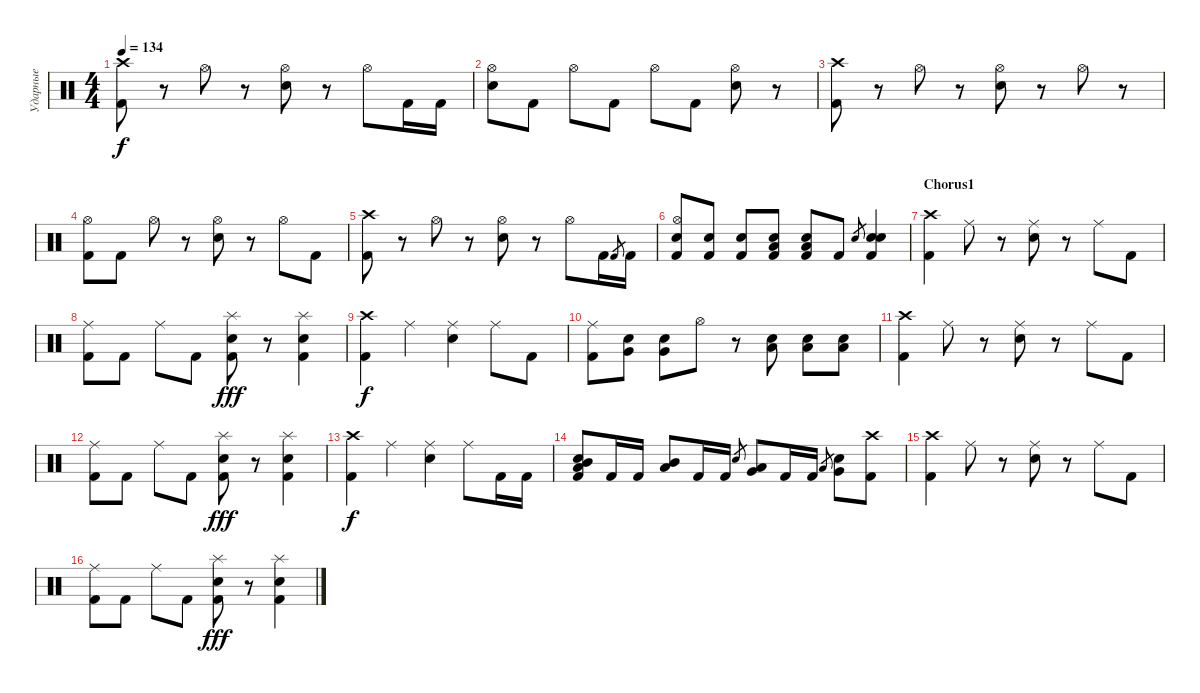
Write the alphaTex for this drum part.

\track ("Ударные" "Ударные") {instrument percussion}
\staff {score}
\articulation defaults
\ts (4 4)
\tempo 134
\clef neutral
\ks c
("Crash high (hit)" "Kick (hit) 2").8{dy f} r.8 "Hi-Hat (open)".8 r.8 ("Hi-Hat (open)" "Electric Snare (hit)").8 r.8 "Hi-Hat (open)".8 "Kick (hit) 2".16 "Kick (hit) 2".16 |
("Hi-Hat (open)" "Electric Snare (hit)").8 "Kick (hit) 2".8 "Hi-Hat (open)".8 "Kick (hit) 2".8 "Hi-Hat (open)".8 "Kick (hit) 2".8 ("Hi-Hat (open)" "Electric Snare (hit)").8 r.8 |
("Crash high (hit)" "Kick (hit) 2").8 r.8 "Hi-Hat (open)".8 r.8 ("Hi-Hat (open)" "Electric Snare (hit)").8 r.8 "Hi-Hat (open)".8 r.8 |
("Hi-Hat (open)" "Kick (hit) 2").8 "Kick (hit) 2".8 "Hi-Hat (open)".8 r.8 ("Hi-Hat (open)" "Electric Snare (hit)").8 r.8 "Hi-Hat (open)".8 "Kick (hit) 2".8 |
("Crash high (hit)" "Kick (hit) 2").8 r.8 "Hi-Hat (open)".8 r.8 ("Hi-Hat (open)" "Electric Snare (hit)").8 r.8 "Hi-Hat (open)".8 "Kick (hit) 2".16 "Kick (hit) 2".8{gr} "Kick (hit) 2".16 |
("Hi-Hat (open)" "Electric Snare (hit)" "Kick (hit) 2").8 ("Electric Snare (hit)" "Kick (hit) 2").8 ("Electric Snare (hit)" "Kick (hit) 2").8 ("Electric Snare (hit)" "Low Tom (hit)" "Kick (hit) 2").8 ("Electric Snare (hit)" "Low Tom (hit)" "Kick (hit) 2").8 "Kick (hit) 2".8 "Electric Snare (hit)".8{gr} ("Electric Snare (hit)" "Electric Snare (hit)" "Kick (hit) 2").4 |
\section ("" "Chorus1")
("Crash high (hit)" "Kick (hit) 2").4 "Ride (middle)".8 r.8 ("Ride (middle)" "Electric Snare (hit)").8 r.8 "Ride (middle)".8 "Kick (hit) 2".8 |
("Ride (middle)" "Kick (hit) 2").8 "Kick (hit) 2".8 "Ride (middle)".8 "Kick (hit) 2".8 ("Splash (hit)" "Electric Snare (hit)" "Kick (hit) 2").8{dy fff} r.8 ("Splash (hit)" "Electric Snare (hit)" "Kick (hit) 2").4 |
("Crash high (hit)" "Kick (hit) 2").4{dy f} "Ride (middle)".4 ("Ride (middle)" "Electric Snare (hit)").4 "Ride (middle)".8 "Kick (hit) 2".8 |
("Ride (middle)" "Kick (hit) 2").8 ("Electric Snare (hit)" "Very Low Tom (hit)").8 ("Electric Snare (hit)" "Very Low Tom (hit)").8 "Hi-Hat (open)".8 r.8 ("Electric Snare (hit)" "Low Floor Tom (hit)").8 ("Electric Snare (hit)" "Low Floor Tom (hit)").8 ("Electric Snare (hit)" "Low Floor Tom (hit)").8 |
("Crash high (hit)" "Kick (hit) 2").4 "Ride (middle)".8 r.8 ("Ride (middle)" "Electric Snare (hit)").8 r.8 "Ride (middle)".8 "Kick (hit) 2".8 |
("Ride (middle)" "Kick (hit) 2").8 "Kick (hit) 2".8 "Ride (middle)".8 "Kick (hit) 2".8 ("Splash (hit)" "Electric Snare (hit)" "Kick (hit) 2").8{dy fff} r.8 ("Splash (hit)" "Electric Snare (hit)" "Kick (hit) 2").4 |
("Crash high (hit)" "Kick (hit) 2").4{dy f} "Ride (middle)".4 ("Ride (middle)" "Electric Snare (hit)").4 "Ride (middle)".8 "Kick (hit) 2".16 "Kick (hit) 2".16 |
("Mid Tom (hit)" "Electric Snare (hit)" "Low Tom (hit)" "Kick (hit) 2").8 "Kick (hit) 2".16 "Kick (hit) 2".16 ("Low Tom (hit)" "Mid Tom (hit)").8 "Kick (hit) 2".16 "Kick (hit) 2".16 "Electric Snare (hit)".8{gr} ("Very Low Tom (hit)" "Low Tom (hit)").8 "Kick (hit) 2".16 "Kick (hit) 2".16 "Low Floor Tom (hit)".8{gr} ("Electric Snare (hit)" "Very Low Tom (hit)").8 ("Crash high (hit)" "Kick (hit) 2").8 |
("Crash high (hit)" "Kick (hit) 2").4 "Ride (middle)".8 r.8 ("Ride (middle)" "Electric Snare (hit)").8 r.8 "Ride (middle)".8 "Kick (hit) 2".8 |
("Ride (middle)" "Kick (hit) 2").8 "Kick (hit) 2".8 "Ride (middle)".8 "Kick (hit) 2".8 ("Splash (hit)" "Electric Snare (hit)" "Kick (hit) 2").8{dy fff} r.8 ("Splash (hit)" "Electric Snare (hit)" "Kick (hit) 2").4
